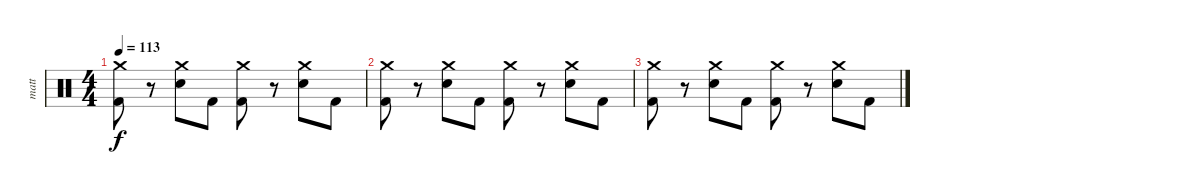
\track ("matt" "matt") {instrument percussion}
\staff {score}
\articulation defaults
\ts (4 4)
\tempo 113
\clef neutral
\ks c
("Crash medium (hit)" "Kick (hit) 2").8{dy f} r.8 ("Crash medium (hit)" "Electric Snare (hit)").8 "Kick (hit) 2".8 ("Crash medium (hit)" "Kick (hit) 2").8 r.8 ("Crash medium (hit)" "Electric Snare (hit)").8 "Kick (hit) 2".8 |
("Crash medium (hit)" "Kick (hit) 2").8 r.8 ("Crash medium (hit)" "Electric Snare (hit)").8 "Kick (hit) 2".8 ("Crash medium (hit)" "Kick (hit) 2").8 r.8 ("Crash medium (hit)" "Electric Snare (hit)").8 "Kick (hit) 2".8 |
("Crash medium (hit)" "Kick (hit) 2").8 r.8 ("Crash medium (hit)" "Electric Snare (hit)").8 "Kick (hit) 2".8 ("Crash medium (hit)" "Kick (hit) 2").8 r.8 ("Crash medium (hit)" "Electric Snare (hit)").8 "Kick (hit) 2".8
